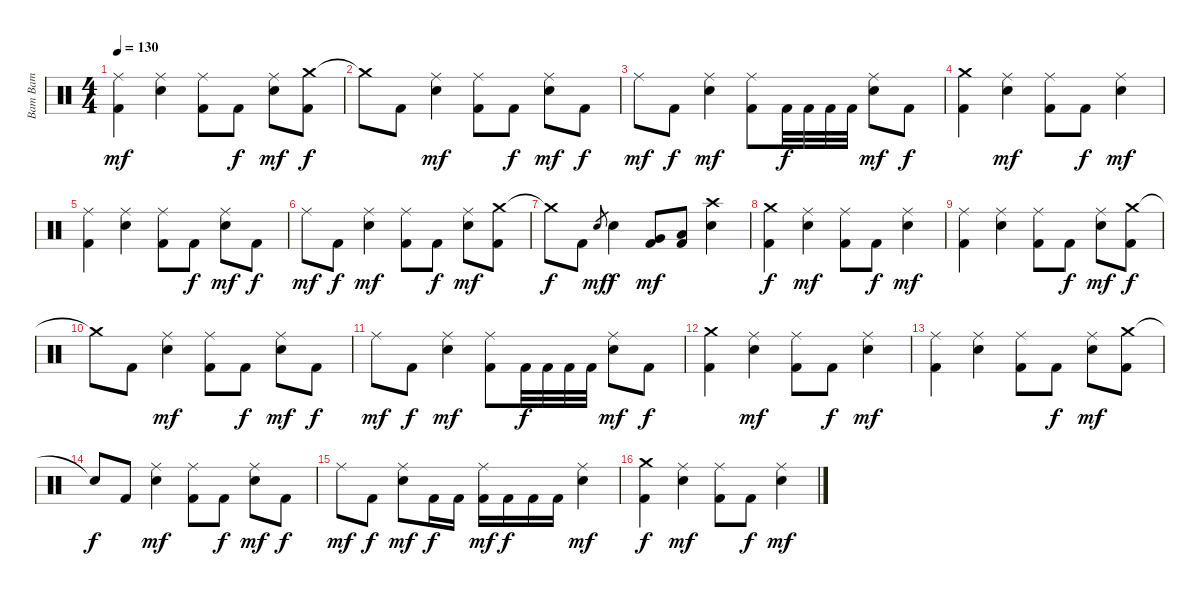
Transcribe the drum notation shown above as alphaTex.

\track ("Bam Bam" "Bam Bam") {instrument percussion}
\staff {score}
\articulation defaults
\ts (4 4)
\tempo 130
\clef neutral
\ks c
("Ride (middle)" "Kick (hit) 2").4{dy mf} ("Ride (middle)" "Electric Snare (hit)").4 ("Ride (middle)" "Kick (hit) 2").8 "Kick (hit) 2".8{dy f} ("Ride (middle)" "Electric Snare (hit)").8{dy mf} ("Crash medium (hit)" "Kick (hit) 2").8{dy f} |
"Crash medium (hit)"{t}.8 "Kick (hit) 2".8 ("Ride (middle)" "Electric Snare (hit)").4{dy mf} ("Ride (middle)" "Kick (hit) 2").8 "Kick (hit) 2".8{dy f} ("Ride (middle)" "Electric Snare (hit)").8{dy mf} "Kick (hit) 2".8{dy f} |
"Ride (middle)".8{dy mf} "Kick (hit) 2".8{dy f} ("Ride (middle)" "Electric Snare (hit)").4{dy mf} ("Ride (middle)" "Kick (hit) 2").8 "Kick (hit) 2".32{dy f} "Kick (hit) 2".32 "Kick (hit) 2".32 "Kick (hit) 2".32 ("Ride (middle)" "Electric Snare (hit)").8{dy mf} "Kick (hit) 2".8{dy f} |
("Crash medium (hit)" "Kick (hit) 2").4 ("Ride (middle)" "Electric Snare (hit)").4{dy mf} ("Ride (middle)" "Kick (hit) 2").8 "Kick (hit) 2".8{dy f} ("Ride (middle)" "Electric Snare (hit)").4{dy mf} |
("Ride (middle)" "Kick (hit) 2").4 ("Ride (middle)" "Electric Snare (hit)").4 ("Ride (middle)" "Kick (hit) 2").8 "Kick (hit) 2".8{dy f} ("Ride (middle)" "Electric Snare (hit)").8{dy mf} "Kick (hit) 2".8{dy f} |
"Ride (middle)".8{dy mf} "Kick (hit) 2".8{dy f} ("Ride (middle)" "Electric Snare (hit)").4{dy mf} ("Ride (middle)" "Kick (hit) 2").8 "Kick (hit) 2".8{dy f} ("Ride (middle)" "Electric Snare (hit)").8{dy mf} ("Crash medium (hit)" "Kick (hit) 2").8 |
"Crash medium (hit)"{t}.8{dy f} "Kick (hit) 2".8 "Electric Snare (hit)".8{gr dy mf} "Electric Snare (hit)".4{dy f} ("Very Low Tom (hit)" "Kick (hit) 2").8{dy mf} ("Low Floor Tom (hit)" "Kick (hit) 2").8 ("Crash high (hit)" "Electric Snare (hit)").4 |
("Crash medium (hit)" "Kick (hit) 2").4{dy f} ("Ride (middle)" "Electric Snare (hit)").4{dy mf} ("Ride (middle)" "Kick (hit) 2").8 "Kick (hit) 2".8{dy f} ("Ride (middle)" "Electric Snare (hit)").4{dy mf} |
("Ride (middle)" "Kick (hit) 2").4 ("Ride (middle)" "Electric Snare (hit)").4 ("Ride (middle)" "Kick (hit) 2").8 "Kick (hit) 2".8{dy f} ("Ride (middle)" "Electric Snare (hit)").8{dy mf} ("Crash medium (hit)" "Kick (hit) 2").8{dy f} |
"Crash medium (hit)"{t}.8 "Kick (hit) 2".8 ("Ride (middle)" "Electric Snare (hit)").4{dy mf} ("Ride (middle)" "Kick (hit) 2").8 "Kick (hit) 2".8{dy f} ("Ride (middle)" "Electric Snare (hit)").8{dy mf} "Kick (hit) 2".8{dy f} |
"Ride (middle)".8{dy mf} "Kick (hit) 2".8{dy f} ("Ride (middle)" "Electric Snare (hit)").4{dy mf} ("Ride (middle)" "Kick (hit) 2").8 "Kick (hit) 2".32{dy f} "Kick (hit) 2".32 "Kick (hit) 2".32 "Kick (hit) 2".32 ("Ride (middle)" "Electric Snare (hit)").8{dy mf} "Kick (hit) 2".8{dy f} |
("Crash medium (hit)" "Kick (hit) 2").4 ("Ride (middle)" "Electric Snare (hit)").4{dy mf} ("Ride (middle)" "Kick (hit) 2").8 "Kick (hit) 2".8{dy f} ("Ride (middle)" "Electric Snare (hit)").4{dy mf} |
("Ride (middle)" "Kick (hit) 2").4 ("Ride (middle)" "Electric Snare (hit)").4 ("Ride (middle)" "Kick (hit) 2").8 "Kick (hit) 2".8{dy f} ("Ride (middle)" "Electric Snare (hit)").8{dy mf} ("Crash medium (hit)" "Kick (hit) 2").8 |
"Snare (hit)"{t}.8{dy f} "Kick (hit) 2".8 ("Ride (middle)" "Electric Snare (hit)").4{dy mf} ("Ride (middle)" "Kick (hit) 2").8 "Kick (hit) 2".8{dy f} ("Ride (middle)" "Electric Snare (hit)").8{dy mf} "Kick (hit) 2".8{dy f} |
"Ride (middle)".8{dy mf} "Kick (hit) 2".8{dy f} ("Ride (middle)" "Electric Snare (hit)").8{dy mf} "Kick (hit) 2".16{dy f} "Kick (hit) 2".16 ("Ride (middle)" "Kick (hit) 2").16{dy mf} "Kick (hit) 2".16{dy f} "Kick (hit) 2".16 "Kick (hit) 2".16 ("Ride (middle)" "Electric Snare (hit)").4{dy mf} |
("Crash medium (hit)" "Kick (hit) 2").4{dy f} ("Ride (middle)" "Electric Snare (hit)").4{dy mf} ("Ride (middle)" "Kick (hit) 2").8 "Kick (hit) 2".8{dy f} ("Ride (middle)" "Electric Snare (hit)").4{dy mf}
